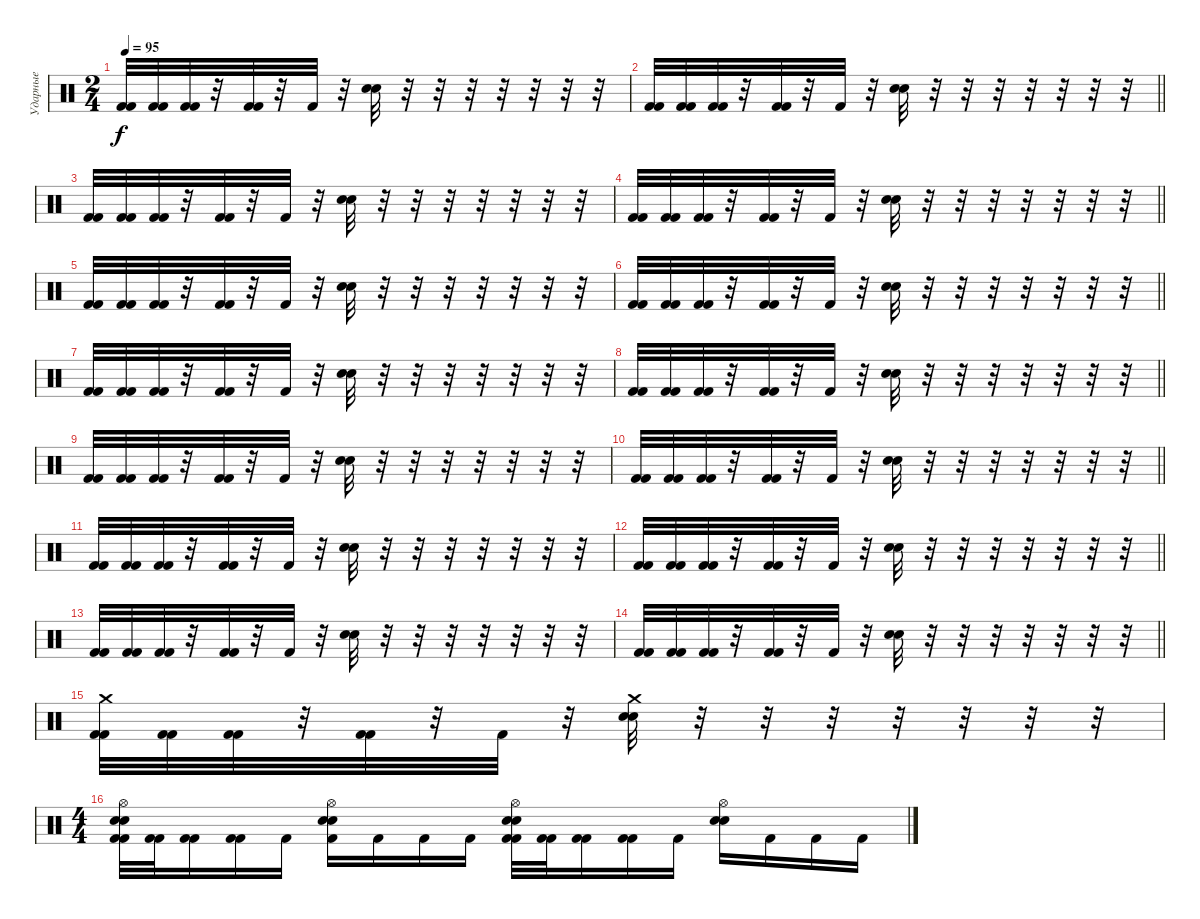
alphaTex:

\track ("Ударные" "Ударные") {instrument percussion}
\staff {score}
\articulation defaults
\ts (2 4)
\tempo 95
\clef neutral
\ks c
("Kick (hit) 2" "Kick (hit) 2").32{dy f} ("Kick (hit) 2" "Kick (hit) 2").32 ("Kick (hit) 2" "Kick (hit) 2").32 r.32 ("Kick (hit) 2" "Kick (hit) 2").32 r.32 "Kick (hit) 2".32 r.32 ("Electric Snare (hit)" "Electric Snare (hit)").32 r.32 r.32 r.32 r.32 r.32 r.32 r.32 |
\barLineRight lightlight
("Kick (hit) 2" "Kick (hit) 2").32 ("Kick (hit) 2" "Kick (hit) 2").32 ("Kick (hit) 2" "Kick (hit) 2").32 r.32 ("Kick (hit) 2" "Kick (hit) 2").32 r.32 "Kick (hit) 2".32 r.32 ("Electric Snare (hit)" "Electric Snare (hit)").32 r.32 r.32 r.32 r.32 r.32 r.32 r.32 |
("Kick (hit) 2" "Kick (hit) 2").32 ("Kick (hit) 2" "Kick (hit) 2").32 ("Kick (hit) 2" "Kick (hit) 2").32 r.32 ("Kick (hit) 2" "Kick (hit) 2").32 r.32 "Kick (hit) 2".32 r.32 ("Electric Snare (hit)" "Electric Snare (hit)").32 r.32 r.32 r.32 r.32 r.32 r.32 r.32 |
\barLineRight lightlight
("Kick (hit) 2" "Kick (hit) 2").32 ("Kick (hit) 2" "Kick (hit) 2").32 ("Kick (hit) 2" "Kick (hit) 2").32 r.32 ("Kick (hit) 2" "Kick (hit) 2").32 r.32 "Kick (hit) 2".32 r.32 ("Electric Snare (hit)" "Electric Snare (hit)").32 r.32 r.32 r.32 r.32 r.32 r.32 r.32 |
("Kick (hit) 2" "Kick (hit) 2").32 ("Kick (hit) 2" "Kick (hit) 2").32 ("Kick (hit) 2" "Kick (hit) 2").32 r.32 ("Kick (hit) 2" "Kick (hit) 2").32 r.32 "Kick (hit) 2".32 r.32 ("Electric Snare (hit)" "Electric Snare (hit)").32 r.32 r.32 r.32 r.32 r.32 r.32 r.32 |
\barLineRight lightlight
("Kick (hit) 2" "Kick (hit) 2").32 ("Kick (hit) 2" "Kick (hit) 2").32 ("Kick (hit) 2" "Kick (hit) 2").32 r.32 ("Kick (hit) 2" "Kick (hit) 2").32 r.32 "Kick (hit) 2".32 r.32 ("Electric Snare (hit)" "Electric Snare (hit)").32 r.32 r.32 r.32 r.32 r.32 r.32 r.32 |
("Kick (hit) 2" "Kick (hit) 2").32 ("Kick (hit) 2" "Kick (hit) 2").32 ("Kick (hit) 2" "Kick (hit) 2").32 r.32 ("Kick (hit) 2" "Kick (hit) 2").32 r.32 "Kick (hit) 2".32 r.32 ("Electric Snare (hit)" "Electric Snare (hit)").32 r.32 r.32 r.32 r.32 r.32 r.32 r.32 |
\barLineRight lightlight
("Kick (hit) 2" "Kick (hit) 2").32 ("Kick (hit) 2" "Kick (hit) 2").32 ("Kick (hit) 2" "Kick (hit) 2").32 r.32 ("Kick (hit) 2" "Kick (hit) 2").32 r.32 "Kick (hit) 2".32 r.32 ("Electric Snare (hit)" "Electric Snare (hit)").32 r.32 r.32 r.32 r.32 r.32 r.32 r.32 |
("Kick (hit) 2" "Kick (hit) 2").32 ("Kick (hit) 2" "Kick (hit) 2").32 ("Kick (hit) 2" "Kick (hit) 2").32 r.32 ("Kick (hit) 2" "Kick (hit) 2").32 r.32 "Kick (hit) 2".32 r.32 ("Electric Snare (hit)" "Electric Snare (hit)").32 r.32 r.32 r.32 r.32 r.32 r.32 r.32 |
\barLineRight lightlight
("Kick (hit) 2" "Kick (hit) 2").32 ("Kick (hit) 2" "Kick (hit) 2").32 ("Kick (hit) 2" "Kick (hit) 2").32 r.32 ("Kick (hit) 2" "Kick (hit) 2").32 r.32 "Kick (hit) 2".32 r.32 ("Electric Snare (hit)" "Electric Snare (hit)").32 r.32 r.32 r.32 r.32 r.32 r.32 r.32 |
("Kick (hit) 2" "Kick (hit) 2").32 ("Kick (hit) 2" "Kick (hit) 2").32 ("Kick (hit) 2" "Kick (hit) 2").32 r.32 ("Kick (hit) 2" "Kick (hit) 2").32 r.32 "Kick (hit) 2".32 r.32 ("Electric Snare (hit)" "Electric Snare (hit)").32 r.32 r.32 r.32 r.32 r.32 r.32 r.32 |
\barLineRight lightlight
("Kick (hit) 2" "Kick (hit) 2").32 ("Kick (hit) 2" "Kick (hit) 2").32 ("Kick (hit) 2" "Kick (hit) 2").32 r.32 ("Kick (hit) 2" "Kick (hit) 2").32 r.32 "Kick (hit) 2".32 r.32 ("Electric Snare (hit)" "Electric Snare (hit)").32 r.32 r.32 r.32 r.32 r.32 r.32 r.32 |
("Kick (hit) 2" "Kick (hit) 2").32 ("Kick (hit) 2" "Kick (hit) 2").32 ("Kick (hit) 2" "Kick (hit) 2").32 r.32 ("Kick (hit) 2" "Kick (hit) 2").32 r.32 "Kick (hit) 2".32 r.32 ("Electric Snare (hit)" "Electric Snare (hit)").32 r.32 r.32 r.32 r.32 r.32 r.32 r.32 |
\barLineRight lightlight
("Kick (hit) 2" "Kick (hit) 2").32 ("Kick (hit) 2" "Kick (hit) 2").32 ("Kick (hit) 2" "Kick (hit) 2").32 r.32 ("Kick (hit) 2" "Kick (hit) 2").32 r.32 "Kick (hit) 2".32 r.32 ("Electric Snare (hit)" "Electric Snare (hit)").32 r.32 r.32 r.32 r.32 r.32 r.32 r.32 |
("Crash medium (hit)" "Kick (hit) 2" "Kick (hit) 2").32 ("Kick (hit) 2" "Kick (hit) 2").32 ("Kick (hit) 2" "Kick (hit) 2").32 r.32 ("Kick (hit) 2" "Kick (hit) 2").32 r.32 "Kick (hit) 2".32 r.32 ("Crash medium (hit)" "Electric Snare (hit)" "Electric Snare (hit)").32 r.32 r.32 r.32 r.32 r.32 r.32 r.32 |
\ts (4 4)
("Hi-Hat (open)" "Electric Snare (hit)" "Electric Snare (hit)" "Kick (hit) 2" "Kick (hit) 2").32 ("Kick (hit) 2" "Kick (hit) 2").32 ("Kick (hit) 2" "Kick (hit) 2").16 ("Kick (hit) 2" "Kick (hit) 2").16 "Kick (hit) 2".16 ("Hi-Hat (open)" "Electric Snare (hit)" "Electric Snare (hit)" "Kick (hit) 2").16 "Kick (hit) 2".16 "Kick (hit) 2".16 "Kick (hit) 2".16 ("Hi-Hat (open)" "Electric Snare (hit)" "Electric Snare (hit)" "Kick (hit) 2" "Kick (hit) 2").32 ("Kick (hit) 2" "Kick (hit) 2").32 ("Kick (hit) 2" "Kick (hit) 2").16 ("Kick (hit) 2" "Kick (hit) 2").16 "Kick (hit) 2".16 ("Hi-Hat (open)" "Electric Snare (hit)" "Electric Snare (hit)").16 "Kick (hit) 2".16 "Kick (hit) 2".16 "Kick (hit) 2".16
